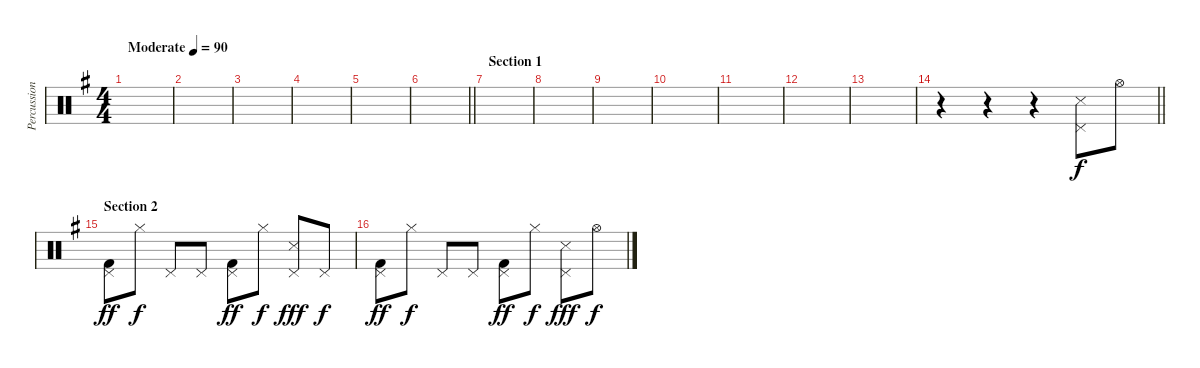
\track ("Percussion" "Percussion") {instrument percussion}
\staff {score}
\articulation defaults
\ts (4 4)
\tempo (90 "Moderate")
\clef neutral
\ks g
|
|
|
|
|
\barLineRight lightlight
|
\section ("" "Section 1")
|
|
|
|
|
|
|
\barLineRight lightlight
r.4 r.4 r.4 ("Pedal Hi-Hat (hit)" "Snare (side stick) 3").8 "Hi-Hat (open)".8{dy f} |
\section ("" "Section 2")
("Pedal Hi-Hat (hit)" "Kick (hit) 2").8{dy ff} "Hi-Hat (closed)".8{dy f} "Pedal Hi-Hat (hit)".8 "Pedal Hi-Hat (hit)".8 ("Pedal Hi-Hat (hit)" "Kick (hit) 2").8{dy ff} "Hi-Hat (closed)".8{dy f} ("Pedal Hi-Hat (hit)" "Snare (side stick) 3").8{dy fff} "Pedal Hi-Hat (hit)".8{dy f} |
("Pedal Hi-Hat (hit)" "Kick (hit) 2").8{dy ff} "Hi-Hat (closed)".8{dy f} "Pedal Hi-Hat (hit)".8 "Pedal Hi-Hat (hit)".8 ("Pedal Hi-Hat (hit)" "Kick (hit) 2").8{dy ff} "Hi-Hat (closed)".8{dy f} ("Pedal Hi-Hat (hit)" "Snare (side stick) 3").8{dy fff} "Hi-Hat (open)".8{dy f}
